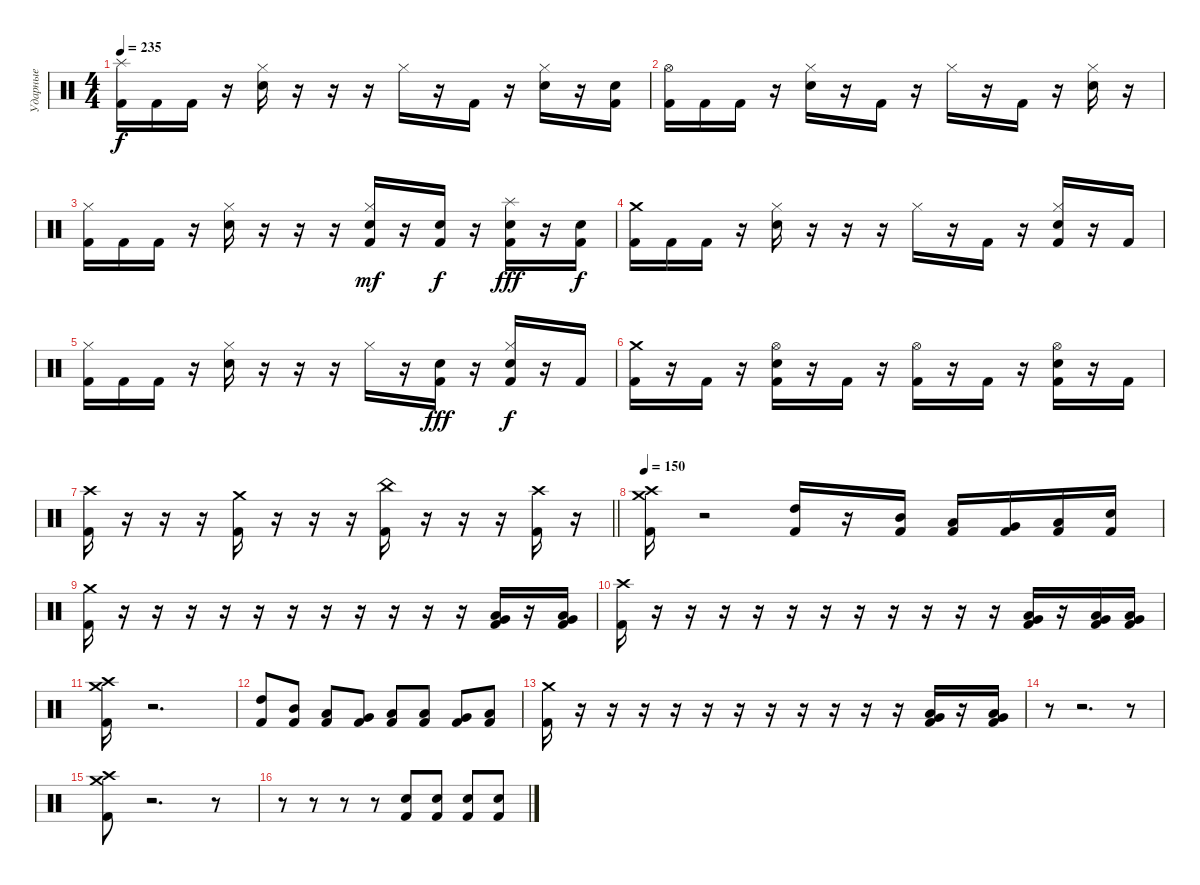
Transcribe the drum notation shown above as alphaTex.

\track ("Ударные" "Ударные") {instrument percussion}
\staff {score}
\articulation defaults
\ts (4 4)
\tempo 235
\clef neutral
\ks c
("Splash (hit)" "Kick (hit) 2").16{dy f} "Kick (hit) 2".16 "Kick (hit) 2".16 r.16 ("Hi-Hat (closed)" "Snare (hit) 2").16 r.16 r.16 r.16 "Hi-Hat (closed)".16 r.16 "Kick (hit) 2".16 r.16 ("Hi-Hat (closed)" "Snare (hit) 2").16 r.16 ("Snare (hit) 2" "Kick (hit) 2").16 |
("Hi-Hat (open)" "Kick (hit) 2").16 "Kick (hit) 2".16 "Kick (hit) 2".16 r.16 ("Hi-Hat (closed)" "Snare (hit) 2").16 r.16 "Kick (hit) 2".16 r.16 "Hi-Hat (closed)".16 r.16 "Kick (hit) 2".16 r.16 ("Hi-Hat (closed)" "Snare (hit) 2").16 r.16 |
("Hi-Hat (closed)" "Kick (hit) 2").16 "Kick (hit) 2".16 "Kick (hit) 2".16 r.16 ("Hi-Hat (closed)" "Snare (hit) 2").16 r.16 r.16 r.16 ("Hi-Hat (closed)" "Snare (hit) 2" "Kick (hit) 2").16{dy mf} r.16 ("Snare (hit) 2" "Kick (hit) 2").16{dy f} r.16 ("Splash (hit)" "Snare (hit) 2" "Kick (hit) 2").16{dy fff} r.16 ("Snare (hit) 2" "Kick (hit) 2").16{dy f} |
("Crash medium (hit)" "Kick (hit) 2").16 "Kick (hit) 2".16 "Kick (hit) 2".16 r.16 ("Hi-Hat (closed)" "Snare (hit) 2").16 r.16 r.16 r.16 "Hi-Hat (closed)".16 r.16 "Kick (hit) 2".16 r.16 ("Hi-Hat (closed)" "Snare (hit) 2" "Kick (hit) 2").16 r.16 "Kick (hit) 2".16 |
("Hi-Hat (closed)" "Kick (hit) 2").16 "Kick (hit) 2".16 "Kick (hit) 2".16 r.16 ("Hi-Hat (closed)" "Snare (hit) 2").16 r.16 r.16 r.16 "Hi-Hat (closed)".16 r.16 ("Snare (hit) 2" "Kick (hit) 2").16{dy fff} r.16 ("Hi-Hat (closed)" "Snare (hit) 2" "Kick (hit) 2").16{dy f} r.16 "Kick (hit) 2".16 |
("Crash medium (hit)" "Kick (hit) 2").16 r.16 "Kick (hit) 2".16 r.16 ("Hi-Hat (open)" "Snare (hit) 2" "Kick (hit) 2").16 r.16 "Kick (hit) 2".16 r.16 ("Hi-Hat (open)" "Kick (hit) 2").16 r.16 "Kick (hit) 2".16 r.16 ("Hi-Hat (open)" "Snare (hit) 2" "Kick (hit) 2").16 r.16 "Kick (hit) 2".16 |
\barLineRight lightlight
("Crash high (hit)" "Kick (hit) 2").16 r.16 r.16 r.16 ("Crash medium (hit)" "Kick (hit) 2").16 r.16 r.16 r.16 ("China (hit)" "Kick (hit) 2").16 r.16 r.16 r.16 ("Crash high (hit)" "Kick (hit) 2").16 r.16 |
\tempo 150
("Crash medium (hit)" "Crash high (hit)" "Kick (hit) 2").16 r.2 ("High Tom (hit)" "Kick (hit) 2").16 r.16 ("Mid Tom (hit)" "Kick (hit) 2").16 ("Low Tom (hit)" "Kick (hit) 2").16 ("Very Low Tom (hit)" "Kick (hit) 2").16 ("Low Floor Tom (hit)" "Kick (hit) 2").16 ("Snare (hit) 2" "Kick (hit) 2").16 |
("Crash medium (hit)" "Kick (hit) 2").16 r.16 r.16 r.16 r.16 r.16 r.16 r.16 r.16 r.16 r.16 r.16 ("Low Tom (hit)" "Very Low Tom (hit)" "Kick (hit) 2").16 r.16 ("Low Tom (hit)" "Very Low Tom (hit)" "Kick (hit) 2").16 |
("Crash high (hit)" "Kick (hit) 2").16 r.16 r.16 r.16 r.16 r.16 r.16 r.16 r.16 r.16 r.16 r.16 ("Low Tom (hit)" "Very Low Tom (hit)" "Kick (hit) 2").16 r.16 ("Low Tom (hit)" "Very Low Tom (hit)" "Kick (hit) 2").16 ("Very Low Tom (hit)" "Low Floor Tom (hit)" "Kick (hit) 2").16 |
("Crash medium (hit)" "Crash high (hit)" "Kick (hit) 2").16 r.2{d} |
("High Tom (hit)" "Kick (hit) 2").8 ("Mid Tom (hit)" "Kick (hit) 2").8 ("Low Tom (hit)" "Kick (hit) 2").8 ("Very Low Tom (hit)" "Kick (hit) 2").8 ("Low Floor Tom (hit)" "Kick (hit) 2").8 ("Low Floor Tom (hit)" "Kick (hit) 2").8 ("Very Low Tom (hit)" "Kick (hit) 2").8 ("Low Tom (hit)" "Kick (hit) 2").8 |
("Crash medium (hit)" "Kick (hit) 2").16 r.16 r.16 r.16 r.16 r.16 r.16 r.16 r.16 r.16 r.16 r.16 ("Low Tom (hit)" "Very Low Tom (hit)" "Kick (hit) 2").16 r.16 ("Low Tom (hit)" "Very Low Tom (hit)" "Kick (hit) 2").16 |
r.8 r.2{d} r.8 |
("Crash medium (hit)" "Crash high (hit)" "Kick (hit) 2").8 r.2{d} r.8 |
r.8 r.8 r.8 r.8 ("Snare (hit) 2" "Kick (hit) 2").8 ("Snare (hit) 2" "Kick (hit) 2").8 ("Snare (hit) 2" "Kick (hit) 2").8 ("Snare (hit) 2" "Kick (hit) 2").8
